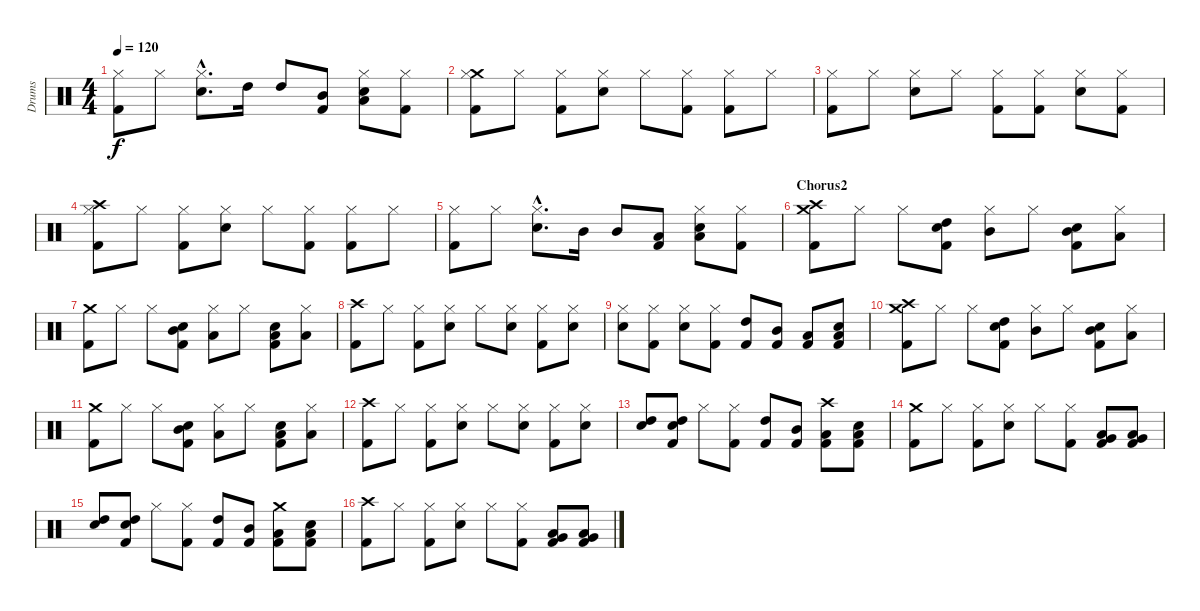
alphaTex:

\track ("Drums" "Drums") {instrument percussion}
\staff {score}
\articulation defaults
\ts (4 4)
\tempo 120
\clef neutral
\ks c
("Hi-Hat (closed)" "Kick (hit) 2").8{dy f} "Hi-Hat (closed)".8 ("Hi-Hat (closed)"{hac} "Snare (hit) 2"{hac}).8{d} "High Tom (hit)".16 "High Tom (hit)".8 ("Mid Tom (hit)" "Kick (hit) 2").8 ("Hi-Hat (closed)" "Low Tom (hit)" "Snare (hit) 2").8 ("Hi-Hat (closed)" "Kick (hit) 2").8 |
("Crash medium (hit)" "Hi-Hat (closed)" "Kick (hit) 2").8 "Hi-Hat (closed)".8 ("Hi-Hat (closed)" "Kick (hit) 2").8 ("Hi-Hat (closed)" "Snare (hit) 2").8 "Hi-Hat (closed)".8 ("Hi-Hat (closed)" "Kick (hit) 2").8 ("Hi-Hat (closed)" "Kick (hit) 2").8 "Hi-Hat (closed)".8 |
("Hi-Hat (closed)" "Kick (hit) 2").8 "Hi-Hat (closed)".8 ("Hi-Hat (closed)" "Snare (hit) 2").8 "Hi-Hat (closed)".8 ("Hi-Hat (closed)" "Kick (hit) 2").8 ("Hi-Hat (closed)" "Kick (hit) 2").8 ("Hi-Hat (closed)" "Snare (hit) 2").8 ("Hi-Hat (closed)" "Kick (hit) 2").8 |
("Crash high (hit)" "Hi-Hat (closed)" "Kick (hit) 2").8 "Hi-Hat (closed)".8 ("Hi-Hat (closed)" "Kick (hit) 2").8 ("Hi-Hat (closed)" "Snare (hit) 2").8 "Hi-Hat (closed)".8 ("Hi-Hat (closed)" "Kick (hit) 2").8 ("Hi-Hat (closed)" "Kick (hit) 2").8 "Hi-Hat (closed)".8 |
("Hi-Hat (closed)" "Kick (hit) 2").8 "Hi-Hat (closed)".8 ("Hi-Hat (closed)"{hac} "Snare (hit) 2"{hac}).8{d} "Mid Tom (hit)".16 "Mid Tom (hit)".8 ("Low Tom (hit)" "Kick (hit) 2").8 ("Hi-Hat (closed)" "Low Tom (hit)" "Snare (hit) 2").8 ("Hi-Hat (closed)" "Kick (hit) 2").8 |
\section ("" "Chorus2")
("Crash medium (hit)" "Crash high (hit)" "Kick (hit) 2").8 "Hi-Hat (closed)".8 "Hi-Hat (closed)".8 ("High Tom (hit)" "Snare (hit) 2" "Kick (hit) 2").8 ("Hi-Hat (closed)" "Mid Tom (hit)").8 "Hi-Hat (closed)".8 ("Mid Tom (hit)" "Snare (hit) 2" "Kick (hit) 2").8 ("Hi-Hat (closed)" "Low Tom (hit)").8 |
("Crash medium (hit)" "Kick (hit) 2").8 "Hi-Hat (closed)".8 "Hi-Hat (closed)".8 ("Mid Tom (hit)" "Snare (hit) 2" "Kick (hit) 2").8 ("Hi-Hat (closed)" "Low Tom (hit)").8 "Hi-Hat (closed)".8 ("Low Tom (hit)" "Snare (hit) 2" "Kick (hit) 2").8 ("Hi-Hat (closed)" "Low Floor Tom (hit)").8 |
("Crash high (hit)" "Kick (hit) 2").8 "Hi-Hat (closed)".8 ("Hi-Hat (closed)" "Kick (hit) 2").8 ("Hi-Hat (closed)" "Snare (hit) 2").8 "Hi-Hat (closed)".8 ("Hi-Hat (closed)" "Snare (hit) 2").8 ("Hi-Hat (closed)" "Kick (hit) 2").8 ("Hi-Hat (closed)" "Snare (hit) 2").8 |
("Hi-Hat (closed)" "Snare (hit) 2").8 ("Hi-Hat (closed)" "Kick (hit) 2").8 ("Hi-Hat (closed)" "Snare (hit) 2").8 ("Hi-Hat (closed)" "Kick (hit) 2").8 ("High Tom (hit)" "Kick (hit) 2").8 ("Mid Tom (hit)" "Kick (hit) 2").8 ("Low Tom (hit)" "Kick (hit) 2").8 ("Low Floor Tom (hit)" "Snare (hit) 2" "Kick (hit) 2").8 |
("Crash medium (hit)" "Crash high (hit)" "Kick (hit) 2").8 "Hi-Hat (closed)".8 "Hi-Hat (closed)".8 ("High Tom (hit)" "Snare (hit) 2" "Kick (hit) 2").8 ("Hi-Hat (closed)" "Mid Tom (hit)").8 "Hi-Hat (closed)".8 ("Mid Tom (hit)" "Snare (hit) 2" "Kick (hit) 2").8 ("Hi-Hat (closed)" "Low Tom (hit)").8 |
("Crash medium (hit)" "Kick (hit) 2").8 "Hi-Hat (closed)".8 "Hi-Hat (closed)".8 ("Mid Tom (hit)" "Snare (hit) 2" "Kick (hit) 2").8 ("Hi-Hat (closed)" "Low Tom (hit)").8 "Hi-Hat (closed)".8 ("Low Tom (hit)" "Snare (hit) 2" "Kick (hit) 2").8 ("Hi-Hat (closed)" "Low Floor Tom (hit)").8 |
("Crash high (hit)" "Kick (hit) 2").8 "Hi-Hat (closed)".8 ("Hi-Hat (closed)" "Kick (hit) 2").8 ("Hi-Hat (closed)" "Snare (hit) 2").8 "Hi-Hat (closed)".8 ("Hi-Hat (closed)" "Snare (hit) 2").8 ("Hi-Hat (closed)" "Kick (hit) 2").8 ("Hi-Hat (closed)" "Snare (hit) 2").8 |
("Snare (hit) 2" "High Tom (hit)").8 ("Snare (hit) 2" "High Tom (hit)" "Kick (hit) 2").8 "Hi-Hat (closed)".8 ("Hi-Hat (closed)" "Kick (hit) 2").8 ("High Tom (hit)" "Kick (hit) 2").8 ("Mid Tom (hit)" "Kick (hit) 2").8 ("Crash high (hit)" "Low Tom (hit)" "Kick (hit) 2").8 ("Low Floor Tom (hit)" "Snare (hit) 2" "Kick (hit) 2").8 |
("Crash medium (hit)" "Kick (hit) 2").8 "Hi-Hat (closed)".8 ("Hi-Hat (closed)" "Kick (hit) 2").8 ("Hi-Hat (closed)" "Snare (hit) 2").8 "Hi-Hat (closed)".8 ("Hi-Hat (closed)" "Kick (hit) 2").8 ("Low Floor Tom (hit)" "Very Low Tom (hit)" "Kick (hit) 2").8 ("Low Floor Tom (hit)" "Very Low Tom (hit)" "Kick (hit) 2").8 |
("Snare (hit) 2" "High Tom (hit)").8 ("Snare (hit) 2" "High Tom (hit)" "Kick (hit) 2").8 "Hi-Hat (closed)".8 ("Hi-Hat (closed)" "Kick (hit) 2").8 ("High Tom (hit)" "Kick (hit) 2").8 ("Mid Tom (hit)" "Kick (hit) 2").8 ("Crash medium (hit)" "Low Tom (hit)" "Kick (hit) 2").8 ("Low Floor Tom (hit)" "Snare (hit) 2" "Kick (hit) 2").8 |
("Crash high (hit)" "Kick (hit) 2").8 "Hi-Hat (closed)".8 ("Hi-Hat (closed)" "Kick (hit) 2").8 ("Hi-Hat (closed)" "Snare (hit) 2").8 "Hi-Hat (closed)".8 ("Hi-Hat (closed)" "Kick (hit) 2").8 ("Low Floor Tom (hit)" "Very Low Tom (hit)" "Kick (hit) 2").8 ("Low Floor Tom (hit)" "Very Low Tom (hit)" "Kick (hit) 2").8
